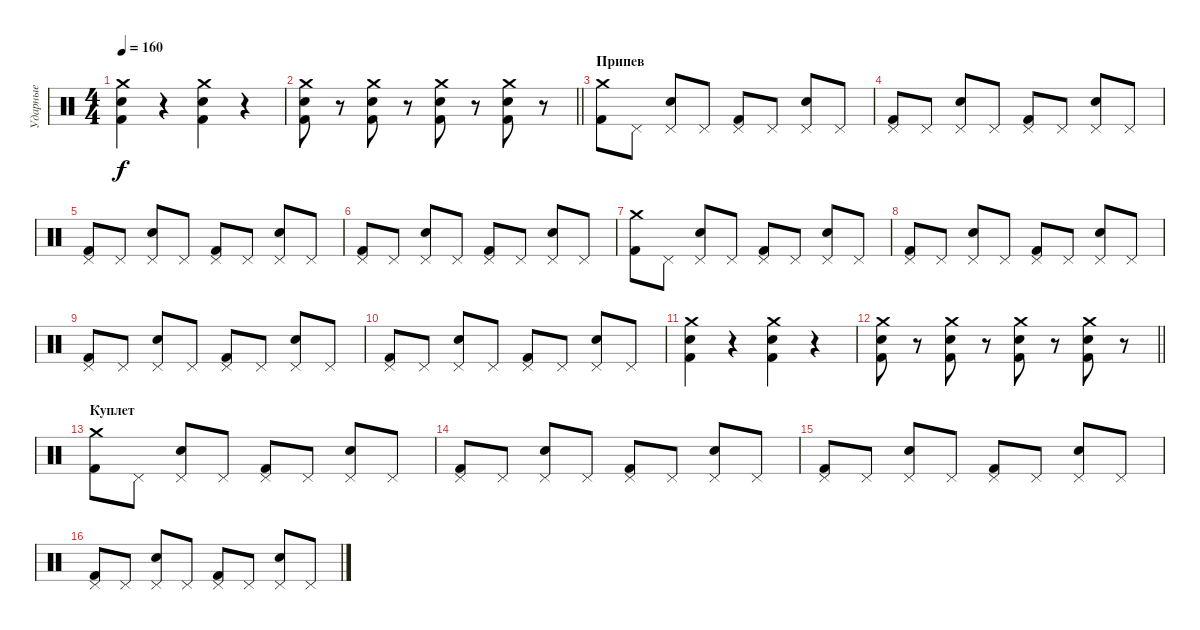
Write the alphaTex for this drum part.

\track ("Ударные" "Ударные") {instrument percussion}
\staff {score}
\articulation defaults
\ts (4 4)
\tempo 160
\clef neutral
\ks c
("Crash medium (hit)" "Kick (hit) 2" "Snare (hit) 2").4{dy f} r.4 ("Crash medium (hit)" "Kick (hit) 2" "Snare (hit) 2").4 r.4 |
\barLineRight lightlight
("Crash medium (hit)" "Kick (hit) 2" "Snare (hit) 2").8 r.8 ("Crash medium (hit)" "Kick (hit) 2" "Snare (hit) 2").8 r.8 ("Crash medium (hit)" "Kick (hit) 2" "Snare (hit) 2").8 r.8 ("Crash medium (hit)" "Kick (hit) 2" "Snare (hit) 2").8 r.8 |
\section ("" "Припев")
("Crash medium (hit)" "Kick (hit) 2").8 "Pedal Hi-Hat (hit)".8 ("Pedal Hi-Hat (hit)" "Snare (hit) 2").8 "Pedal Hi-Hat (hit)".8 ("Pedal Hi-Hat (hit)" "Kick (hit) 2").8 "Pedal Hi-Hat (hit)".8 ("Pedal Hi-Hat (hit)" "Snare (hit) 2").8 "Pedal Hi-Hat (hit)".8 |
("Pedal Hi-Hat (hit)" "Kick (hit) 2").8 "Pedal Hi-Hat (hit)".8 ("Pedal Hi-Hat (hit)" "Snare (hit) 2").8 "Pedal Hi-Hat (hit)".8 ("Pedal Hi-Hat (hit)" "Kick (hit) 2").8 "Pedal Hi-Hat (hit)".8 ("Pedal Hi-Hat (hit)" "Snare (hit) 2").8 "Pedal Hi-Hat (hit)".8 |
("Pedal Hi-Hat (hit)" "Kick (hit) 2").8 "Pedal Hi-Hat (hit)".8 ("Pedal Hi-Hat (hit)" "Snare (hit) 2").8 "Pedal Hi-Hat (hit)".8 ("Pedal Hi-Hat (hit)" "Kick (hit) 2").8 "Pedal Hi-Hat (hit)".8 ("Pedal Hi-Hat (hit)" "Snare (hit) 2").8 "Pedal Hi-Hat (hit)".8 |
("Pedal Hi-Hat (hit)" "Kick (hit) 2").8 "Pedal Hi-Hat (hit)".8 ("Pedal Hi-Hat (hit)" "Snare (hit) 2").8 "Pedal Hi-Hat (hit)".8 ("Pedal Hi-Hat (hit)" "Kick (hit) 2").8 "Pedal Hi-Hat (hit)".8 ("Pedal Hi-Hat (hit)" "Snare (hit) 2").8 "Pedal Hi-Hat (hit)".8 |
("Crash medium (hit)" "Kick (hit) 2").8 "Pedal Hi-Hat (hit)".8 ("Pedal Hi-Hat (hit)" "Snare (hit) 2").8 "Pedal Hi-Hat (hit)".8 ("Pedal Hi-Hat (hit)" "Kick (hit) 2").8 "Pedal Hi-Hat (hit)".8 ("Pedal Hi-Hat (hit)" "Snare (hit) 2").8 "Pedal Hi-Hat (hit)".8 |
("Pedal Hi-Hat (hit)" "Kick (hit) 2").8 "Pedal Hi-Hat (hit)".8 ("Pedal Hi-Hat (hit)" "Snare (hit) 2").8 "Pedal Hi-Hat (hit)".8 ("Pedal Hi-Hat (hit)" "Kick (hit) 2").8 "Pedal Hi-Hat (hit)".8 ("Pedal Hi-Hat (hit)" "Snare (hit) 2").8 "Pedal Hi-Hat (hit)".8 |
("Pedal Hi-Hat (hit)" "Kick (hit) 2").8 "Pedal Hi-Hat (hit)".8 ("Pedal Hi-Hat (hit)" "Snare (hit) 2").8 "Pedal Hi-Hat (hit)".8 ("Pedal Hi-Hat (hit)" "Kick (hit) 2").8 "Pedal Hi-Hat (hit)".8 ("Pedal Hi-Hat (hit)" "Snare (hit) 2").8 "Pedal Hi-Hat (hit)".8 |
("Pedal Hi-Hat (hit)" "Kick (hit) 2").8 "Pedal Hi-Hat (hit)".8 ("Pedal Hi-Hat (hit)" "Snare (hit) 2").8 "Pedal Hi-Hat (hit)".8 ("Pedal Hi-Hat (hit)" "Kick (hit) 2").8 "Pedal Hi-Hat (hit)".8 ("Pedal Hi-Hat (hit)" "Snare (hit) 2").8 "Pedal Hi-Hat (hit)".8 |
("Crash medium (hit)" "Kick (hit) 2" "Snare (hit) 2").4 r.4 ("Crash medium (hit)" "Kick (hit) 2" "Snare (hit) 2").4 r.4 |
\barLineRight lightlight
("Crash medium (hit)" "Kick (hit) 2" "Snare (hit) 2").8 r.8 ("Crash medium (hit)" "Kick (hit) 2" "Snare (hit) 2").8 r.8 ("Crash medium (hit)" "Kick (hit) 2" "Snare (hit) 2").8 r.8 ("Crash medium (hit)" "Kick (hit) 2" "Snare (hit) 2").8 r.8 |
\section ("" "Куплет")
("Crash medium (hit)" "Kick (hit) 2").8 "Pedal Hi-Hat (hit)".8 ("Pedal Hi-Hat (hit)" "Snare (hit) 2").8 "Pedal Hi-Hat (hit)".8 ("Pedal Hi-Hat (hit)" "Kick (hit) 2").8 "Pedal Hi-Hat (hit)".8 ("Pedal Hi-Hat (hit)" "Snare (hit) 2").8 "Pedal Hi-Hat (hit)".8 |
("Pedal Hi-Hat (hit)" "Kick (hit) 2").8 "Pedal Hi-Hat (hit)".8 ("Pedal Hi-Hat (hit)" "Snare (hit) 2").8 "Pedal Hi-Hat (hit)".8 ("Pedal Hi-Hat (hit)" "Kick (hit) 2").8 "Pedal Hi-Hat (hit)".8 ("Pedal Hi-Hat (hit)" "Snare (hit) 2").8 "Pedal Hi-Hat (hit)".8 |
("Pedal Hi-Hat (hit)" "Kick (hit) 2").8 "Pedal Hi-Hat (hit)".8 ("Pedal Hi-Hat (hit)" "Snare (hit) 2").8 "Pedal Hi-Hat (hit)".8 ("Pedal Hi-Hat (hit)" "Kick (hit) 2").8 "Pedal Hi-Hat (hit)".8 ("Pedal Hi-Hat (hit)" "Snare (hit) 2").8 "Pedal Hi-Hat (hit)".8 |
("Pedal Hi-Hat (hit)" "Kick (hit) 2").8 "Pedal Hi-Hat (hit)".8 ("Pedal Hi-Hat (hit)" "Snare (hit) 2").8 "Pedal Hi-Hat (hit)".8 ("Pedal Hi-Hat (hit)" "Kick (hit) 2").8 "Pedal Hi-Hat (hit)".8 ("Pedal Hi-Hat (hit)" "Snare (hit) 2").8 "Pedal Hi-Hat (hit)".8
